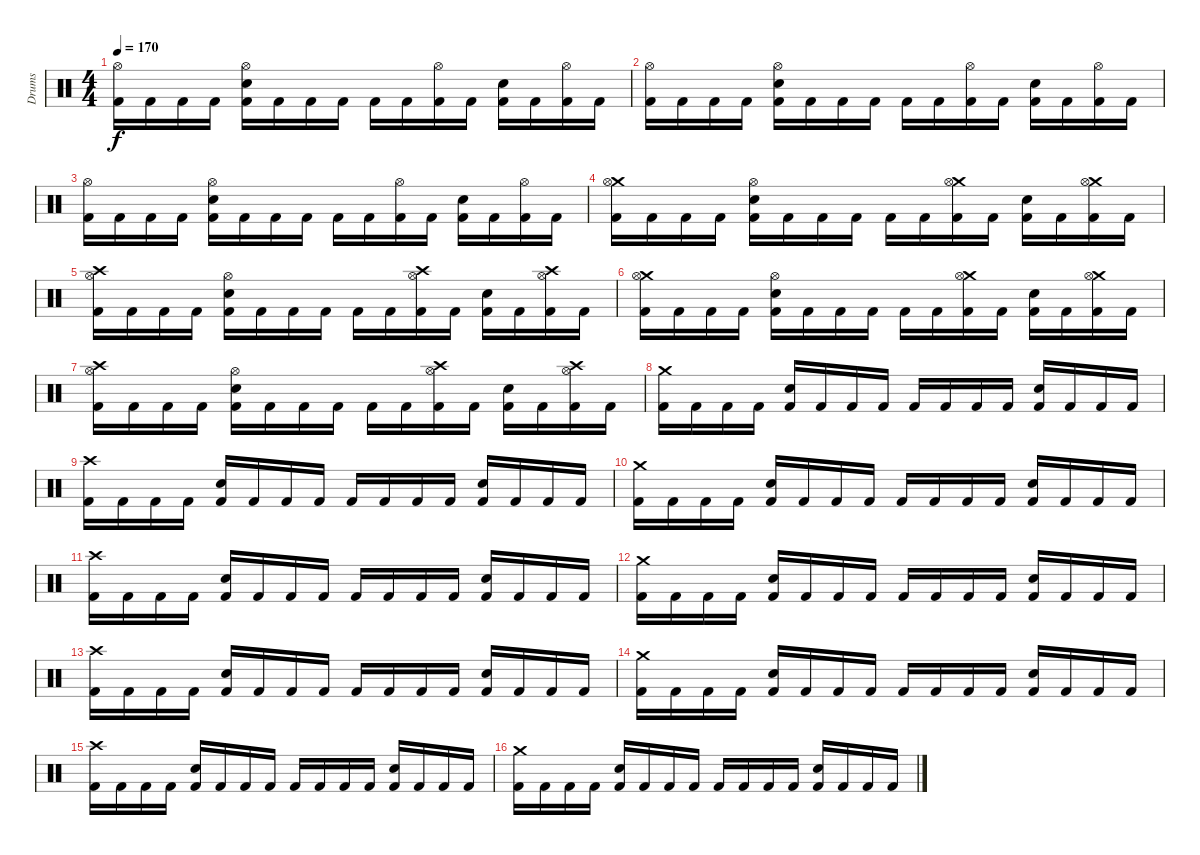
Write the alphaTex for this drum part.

\track ("Drums" "Drums") {instrument percussion}
\staff {score}
\articulation defaults
\ts (4 4)
\tempo 170
\clef neutral
\ks c
("Hi-Hat (open)" "Kick (hit) 2").16{dy f} "Kick (hit) 2".16 "Kick (hit) 2".16 "Kick (hit) 2".16 ("Hi-Hat (open)" "Electric Snare (hit)" "Kick (hit) 2").16 "Kick (hit) 2".16 "Kick (hit) 2".16 "Kick (hit) 2".16 "Kick (hit) 2".16 "Kick (hit) 2".16 ("Hi-Hat (open)" "Kick (hit) 2").16 "Kick (hit) 2".16 ("Electric Snare (hit)" "Kick (hit) 2").16 "Kick (hit) 2".16 ("Hi-Hat (open)" "Kick (hit) 2").16 "Kick (hit) 2".16 |
("Hi-Hat (open)" "Kick (hit) 2").16 "Kick (hit) 2".16 "Kick (hit) 2".16 "Kick (hit) 2".16 ("Hi-Hat (open)" "Electric Snare (hit)" "Kick (hit) 2").16 "Kick (hit) 2".16 "Kick (hit) 2".16 "Kick (hit) 2".16 "Kick (hit) 2".16 "Kick (hit) 2".16 ("Hi-Hat (open)" "Kick (hit) 2").16 "Kick (hit) 2".16 ("Electric Snare (hit)" "Kick (hit) 2").16 "Kick (hit) 2".16 ("Hi-Hat (open)" "Kick (hit) 2").16 "Kick (hit) 2".16 |
("Hi-Hat (open)" "Kick (hit) 2").16 "Kick (hit) 2".16 "Kick (hit) 2".16 "Kick (hit) 2".16 ("Hi-Hat (open)" "Electric Snare (hit)" "Kick (hit) 2").16 "Kick (hit) 2".16 "Kick (hit) 2".16 "Kick (hit) 2".16 "Kick (hit) 2".16 "Kick (hit) 2".16 ("Hi-Hat (open)" "Kick (hit) 2").16 "Kick (hit) 2".16 ("Electric Snare (hit)" "Kick (hit) 2").16 "Kick (hit) 2".16 ("Hi-Hat (open)" "Kick (hit) 2").16 "Kick (hit) 2".16 |
("Crash medium (hit)" "Hi-Hat (open)" "Kick (hit) 2").16 "Kick (hit) 2".16 "Kick (hit) 2".16 "Kick (hit) 2".16 ("Hi-Hat (open)" "Electric Snare (hit)" "Kick (hit) 2").16 "Kick (hit) 2".16 "Kick (hit) 2".16 "Kick (hit) 2".16 "Kick (hit) 2".16 "Kick (hit) 2".16 ("Crash medium (hit)" "Hi-Hat (open)" "Kick (hit) 2").16 "Kick (hit) 2".16 ("Electric Snare (hit)" "Kick (hit) 2").16 "Kick (hit) 2".16 ("Crash medium (hit)" "Hi-Hat (open)" "Kick (hit) 2").16 "Kick (hit) 2".16 |
("Crash high (hit)" "Hi-Hat (open)" "Kick (hit) 2").16 "Kick (hit) 2".16 "Kick (hit) 2".16 "Kick (hit) 2".16 ("Hi-Hat (open)" "Electric Snare (hit)" "Kick (hit) 2").16 "Kick (hit) 2".16 "Kick (hit) 2".16 "Kick (hit) 2".16 "Kick (hit) 2".16 "Kick (hit) 2".16 ("Crash high (hit)" "Hi-Hat (open)" "Kick (hit) 2").16 "Kick (hit) 2".16 ("Electric Snare (hit)" "Kick (hit) 2").16 "Kick (hit) 2".16 ("Crash high (hit)" "Hi-Hat (open)" "Kick (hit) 2").16 "Kick (hit) 2".16 |
("Crash medium (hit)" "Hi-Hat (open)" "Kick (hit) 2").16 "Kick (hit) 2".16 "Kick (hit) 2".16 "Kick (hit) 2".16 ("Hi-Hat (open)" "Electric Snare (hit)" "Kick (hit) 2").16 "Kick (hit) 2".16 "Kick (hit) 2".16 "Kick (hit) 2".16 "Kick (hit) 2".16 "Kick (hit) 2".16 ("Crash medium (hit)" "Hi-Hat (open)" "Kick (hit) 2").16 "Kick (hit) 2".16 ("Electric Snare (hit)" "Kick (hit) 2").16 "Kick (hit) 2".16 ("Crash medium (hit)" "Hi-Hat (open)" "Kick (hit) 2").16 "Kick (hit) 2".16 |
("Crash high (hit)" "Hi-Hat (open)" "Kick (hit) 2").16 "Kick (hit) 2".16 "Kick (hit) 2".16 "Kick (hit) 2".16 ("Hi-Hat (open)" "Electric Snare (hit)" "Kick (hit) 2").16 "Kick (hit) 2".16 "Kick (hit) 2".16 "Kick (hit) 2".16 "Kick (hit) 2".16 "Kick (hit) 2".16 ("Crash high (hit)" "Hi-Hat (open)" "Kick (hit) 2").16 "Kick (hit) 2".16 ("Electric Snare (hit)" "Kick (hit) 2").16 "Kick (hit) 2".16 ("Crash high (hit)" "Hi-Hat (open)" "Kick (hit) 2").16 "Kick (hit) 2".16 |
("Crash medium (hit)" "Kick (hit) 2").16 "Kick (hit) 2".16 "Kick (hit) 2".16 "Kick (hit) 2".16 ("Electric Snare (hit)" "Kick (hit) 2").16 "Kick (hit) 2".16 "Kick (hit) 2".16 "Kick (hit) 2".16 "Kick (hit) 2".16 "Kick (hit) 2".16 "Kick (hit) 2".16 "Kick (hit) 2".16 ("Electric Snare (hit)" "Kick (hit) 2").16 "Kick (hit) 2".16 "Kick (hit) 2".16 "Kick (hit) 2".16 |
("Crash high (hit)" "Kick (hit) 2").16 "Kick (hit) 2".16 "Kick (hit) 2".16 "Kick (hit) 2".16 ("Electric Snare (hit)" "Kick (hit) 2").16 "Kick (hit) 2".16 "Kick (hit) 2".16 "Kick (hit) 2".16 "Kick (hit) 2".16 "Kick (hit) 2".16 "Kick (hit) 2".16 "Kick (hit) 2".16 ("Electric Snare (hit)" "Kick (hit) 2").16 "Kick (hit) 2".16 "Kick (hit) 2".16 "Kick (hit) 2".16 |
("Crash medium (hit)" "Kick (hit) 2").16 "Kick (hit) 2".16 "Kick (hit) 2".16 "Kick (hit) 2".16 ("Electric Snare (hit)" "Kick (hit) 2").16 "Kick (hit) 2".16 "Kick (hit) 2".16 "Kick (hit) 2".16 "Kick (hit) 2".16 "Kick (hit) 2".16 "Kick (hit) 2".16 "Kick (hit) 2".16 ("Electric Snare (hit)" "Kick (hit) 2").16 "Kick (hit) 2".16 "Kick (hit) 2".16 "Kick (hit) 2".16 |
("Crash high (hit)" "Kick (hit) 2").16 "Kick (hit) 2".16 "Kick (hit) 2".16 "Kick (hit) 2".16 ("Electric Snare (hit)" "Kick (hit) 2").16 "Kick (hit) 2".16 "Kick (hit) 2".16 "Kick (hit) 2".16 "Kick (hit) 2".16 "Kick (hit) 2".16 "Kick (hit) 2".16 "Kick (hit) 2".16 ("Electric Snare (hit)" "Kick (hit) 2").16 "Kick (hit) 2".16 "Kick (hit) 2".16 "Kick (hit) 2".16 |
("Crash medium (hit)" "Kick (hit) 2").16 "Kick (hit) 2".16 "Kick (hit) 2".16 "Kick (hit) 2".16 ("Electric Snare (hit)" "Kick (hit) 2").16 "Kick (hit) 2".16 "Kick (hit) 2".16 "Kick (hit) 2".16 "Kick (hit) 2".16 "Kick (hit) 2".16 "Kick (hit) 2".16 "Kick (hit) 2".16 ("Electric Snare (hit)" "Kick (hit) 2").16 "Kick (hit) 2".16 "Kick (hit) 2".16 "Kick (hit) 2".16 |
("Crash high (hit)" "Kick (hit) 2").16 "Kick (hit) 2".16 "Kick (hit) 2".16 "Kick (hit) 2".16 ("Electric Snare (hit)" "Kick (hit) 2").16 "Kick (hit) 2".16 "Kick (hit) 2".16 "Kick (hit) 2".16 "Kick (hit) 2".16 "Kick (hit) 2".16 "Kick (hit) 2".16 "Kick (hit) 2".16 ("Electric Snare (hit)" "Kick (hit) 2").16 "Kick (hit) 2".16 "Kick (hit) 2".16 "Kick (hit) 2".16 |
("Crash medium (hit)" "Kick (hit) 2").16 "Kick (hit) 2".16 "Kick (hit) 2".16 "Kick (hit) 2".16 ("Electric Snare (hit)" "Kick (hit) 2").16 "Kick (hit) 2".16 "Kick (hit) 2".16 "Kick (hit) 2".16 "Kick (hit) 2".16 "Kick (hit) 2".16 "Kick (hit) 2".16 "Kick (hit) 2".16 ("Electric Snare (hit)" "Kick (hit) 2").16 "Kick (hit) 2".16 "Kick (hit) 2".16 "Kick (hit) 2".16 |
("Crash high (hit)" "Kick (hit) 2").16 "Kick (hit) 2".16 "Kick (hit) 2".16 "Kick (hit) 2".16 ("Electric Snare (hit)" "Kick (hit) 2").16 "Kick (hit) 2".16 "Kick (hit) 2".16 "Kick (hit) 2".16 "Kick (hit) 2".16 "Kick (hit) 2".16 "Kick (hit) 2".16 "Kick (hit) 2".16 ("Electric Snare (hit)" "Kick (hit) 2").16 "Kick (hit) 2".16 "Kick (hit) 2".16 "Kick (hit) 2".16 |
("Crash medium (hit)" "Kick (hit) 2").16 "Kick (hit) 2".16 "Kick (hit) 2".16 "Kick (hit) 2".16 ("Electric Snare (hit)" "Kick (hit) 2").16 "Kick (hit) 2".16 "Kick (hit) 2".16 "Kick (hit) 2".16 "Kick (hit) 2".16 "Kick (hit) 2".16 "Kick (hit) 2".16 "Kick (hit) 2".16 ("Electric Snare (hit)" "Kick (hit) 2").16 "Kick (hit) 2".16 "Kick (hit) 2".16 "Kick (hit) 2".16
